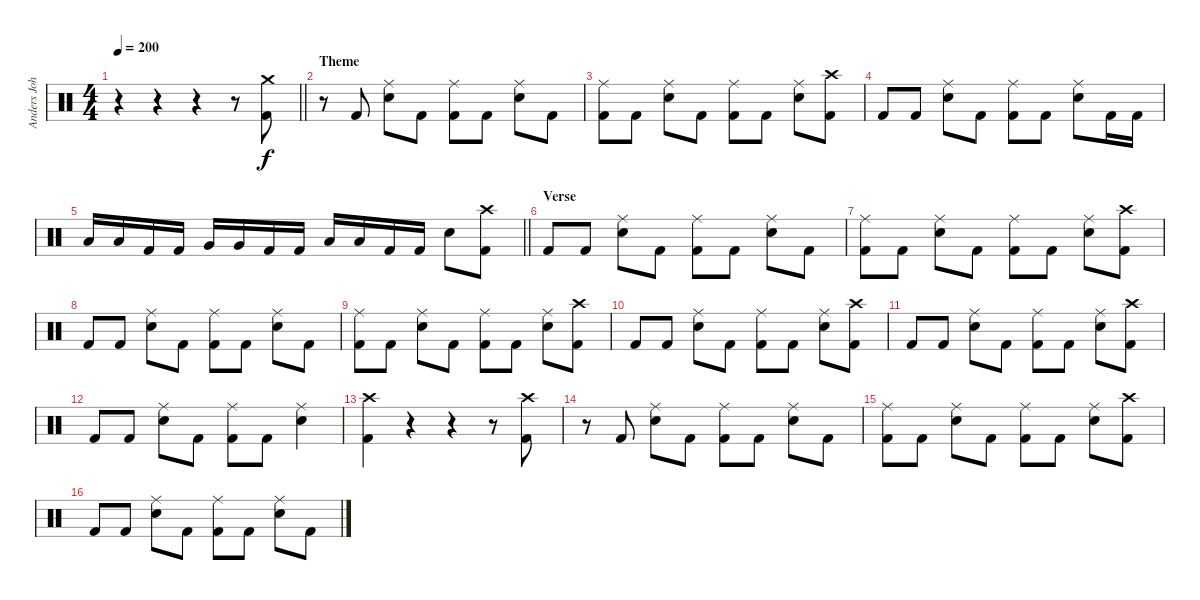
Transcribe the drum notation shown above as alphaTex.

\track ("Anders Johansson" "Anders Joh") {instrument percussion}
\staff {score}
\articulation defaults
\ts (4 4)
\tempo 200
\clef neutral
\barLineRight lightlight
\ks c
r.4{dy f} r.4 r.4 r.8 ("Crash medium (hit)" "Kick (hit) 2").8 |
\section ("" "Theme")
r.8 "Kick (hit) 2".8 ("Ride (middle)" "Snare (hit) 2").8 "Kick (hit) 2".8 ("Ride (middle)" "Kick (hit) 2").8 "Kick (hit) 2".8 ("Ride (middle)" "Snare (hit) 2").8 "Kick (hit) 2".8 |
("Ride (middle)" "Kick (hit) 2").8 "Kick (hit) 2".8 ("Ride (middle)" "Snare (hit) 2").8 "Kick (hit) 2".8 ("Ride (middle)" "Kick (hit) 2").8 "Kick (hit) 2".8 ("Ride (middle)" "Snare (hit) 2").8 ("Crash high (hit)" "Kick (hit) 2").8 |
"Kick (hit) 2".8 "Kick (hit) 2".8 ("Ride (middle)" "Snare (hit) 2").8 "Kick (hit) 2".8 ("Ride (middle)" "Kick (hit) 2").8 "Kick (hit) 2".8 ("Ride (middle)" "Snare (hit) 2").8 "Kick (hit) 2".16 "Kick (hit) 2".16 |
\barLineRight lightlight "Low Tom (hit)".16 "Low Tom (hit)".16 "Kick (hit) 2".16 "Kick (hit) 2".16 "Very Low Tom (hit)".16 "Very Low Tom (hit)".16 "Kick (hit) 2".16 "Kick (hit) 2".16 "Low Tom (hit)".16 "Low Tom (hit)".16 "Kick (hit) 2".16 "Kick (hit) 2".16 "Snare (hit) 2".8
("Crash high (hit)" "Kick (hit) 2").8 |
\section ("" "Verse")
"Kick (hit) 2".8 "Kick (hit) 2".8 ("Ride (middle)" "Snare (hit) 2").8 "Kick (hit) 2".8 ("Ride (middle)" "Kick (hit) 2").8 "Kick (hit) 2".8 ("Ride (middle)" "Snare (hit) 2").8 "Kick (hit) 2".8 |
("Ride (middle)" "Kick (hit) 2").8 "Kick (hit) 2".8 ("Ride (middle)" "Snare (hit) 2").8 "Kick (hit) 2".8 ("Ride (middle)" "Kick (hit) 2").8 "Kick (hit) 2".8 ("Ride (middle)" "Snare (hit) 2").8 ("Crash high (hit)" "Kick (hit) 2").8 |
"Kick (hit) 2".8 "Kick (hit) 2".8 ("Ride (middle)" "Snare (hit) 2").8 "Kick (hit) 2".8 ("Ride (middle)" "Kick (hit) 2").8 "Kick (hit) 2".8 ("Ride (middle)" "Snare (hit) 2").8 "Kick (hit) 2".8 |
("Ride (middle)" "Kick (hit) 2").8 "Kick (hit) 2".8 ("Ride (middle)" "Snare (hit) 2").8 "Kick (hit) 2".8 ("Ride (middle)" "Kick (hit) 2").8 "Kick (hit) 2".8 ("Ride (middle)" "Snare (hit) 2").8 ("Crash high (hit)" "Kick (hit) 2").8 |
"Kick (hit) 2".8 "Kick (hit) 2".8 ("Ride (middle)" "Snare (hit) 2").8 "Kick (hit) 2".8 ("Ride (middle)" "Kick (hit) 2").8 "Kick (hit) 2".8 ("Ride (middle)" "Snare (hit) 2").8 ("Crash high (hit)" "Kick (hit) 2").8 |
"Kick (hit) 2".8 "Kick (hit) 2".8 ("Ride (middle)" "Snare (hit) 2").8 "Kick (hit) 2".8 ("Ride (middle)" "Kick (hit) 2").8 "Kick (hit) 2".8 ("Ride (middle)" "Snare (hit) 2").8 ("Crash high (hit)" "Kick (hit) 2").8 |
"Kick (hit) 2".8 "Kick (hit) 2".8 ("Ride (middle)" "Snare (hit) 2").8 "Kick (hit) 2".8 ("Ride (middle)" "Kick (hit) 2").8 "Kick (hit) 2".8 ("Ride (middle)" "Snare (hit) 2").4 |
("Crash high (hit)" "Kick (hit) 2").4 r.4 r.4 r.8 ("Crash high (hit)" "Kick (hit) 2").8 |
r.8 "Kick (hit) 2".8 ("Ride (middle)" "Snare (hit) 2").8 "Kick (hit) 2".8 ("Ride (middle)" "Kick (hit) 2").8 "Kick (hit) 2".8 ("Ride (middle)" "Snare (hit) 2").8 "Kick (hit) 2".8 |
("Ride (middle)" "Kick (hit) 2").8 "Kick (hit) 2".8 ("Ride (middle)" "Snare (hit) 2").8 "Kick (hit) 2".8 ("Ride (middle)" "Kick (hit) 2").8 "Kick (hit) 2".8 ("Ride (middle)" "Snare (hit) 2").8 ("Crash high (hit)" "Kick (hit) 2").8 |
"Kick (hit) 2".8 "Kick (hit) 2".8 ("Ride (middle)" "Snare (hit) 2").8 "Kick (hit) 2".8 ("Ride (middle)" "Kick (hit) 2").8 "Kick (hit) 2".8 ("Ride (middle)" "Snare (hit) 2").8 "Kick (hit) 2".8
